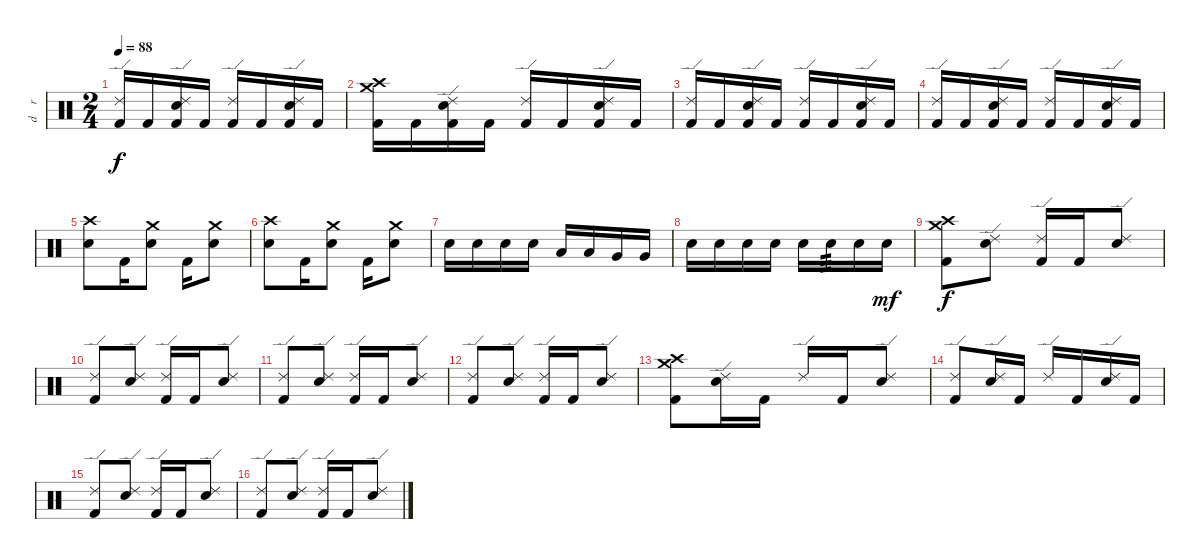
\track ("d    r     u    m    s" "d    r    ") {instrument percussion}
\staff {score}
\articulation defaults
\ts (2 4)
\tempo 88
\clef neutral
\ks c
("Ride (edge) 2" "Kick (hit) 2").16{dy f} "Kick (hit) 2".16 ("Ride (edge) 2" "Electric Snare (hit)" "Kick (hit) 2").16 "Kick (hit) 2".16 ("Ride (edge) 2" "Kick (hit) 2").16 "Kick (hit) 2".16 ("Ride (edge) 2" "Electric Snare (hit)" "Kick (hit) 2").16 "Kick (hit) 2".16 |
("Crash high (hit)" "Crash medium (hit)" "Kick (hit) 2").16 "Kick (hit) 2".16 ("Ride (edge) 2" "Electric Snare (hit)" "Kick (hit) 2").16 "Kick (hit) 2".16 ("Ride (edge) 2" "Kick (hit) 2").16 "Kick (hit) 2".16 ("Ride (edge) 2" "Electric Snare (hit)" "Kick (hit) 2").16 "Kick (hit) 2".16 |
("Ride (edge) 2" "Kick (hit) 2").16 "Kick (hit) 2".16 ("Ride (edge) 2" "Electric Snare (hit)" "Kick (hit) 2").16 "Kick (hit) 2".16 ("Ride (edge) 2" "Kick (hit) 2").16 "Kick (hit) 2".16 ("Ride (edge) 2" "Electric Snare (hit)" "Kick (hit) 2").16 "Kick (hit) 2".16 |
("Ride (edge) 2" "Kick (hit) 2").16 "Kick (hit) 2".16 ("Ride (edge) 2" "Electric Snare (hit)" "Kick (hit) 2").16 "Kick (hit) 2".16 ("Ride (edge) 2" "Kick (hit) 2").16 "Kick (hit) 2".16 ("Ride (edge) 2" "Electric Snare (hit)" "Kick (hit) 2").16 "Kick (hit) 2".16 |
("Crash high (hit)" "Electric Snare (hit)").8 "Kick (hit) 2".16 ("Crash medium (hit)" "Electric Snare (hit)").8 "Kick (hit) 2".16 ("Crash medium (hit)" "Electric Snare (hit)").8 |
("Crash high (hit)" "Electric Snare (hit)").8 "Kick (hit) 2".16 ("Crash medium (hit)" "Electric Snare (hit)").8 "Kick (hit) 2".16 ("Crash medium (hit)" "Electric Snare (hit)").8 |
"Electric Snare (hit)".16 "Electric Snare (hit)".16 "Electric Snare (hit)".16 "Electric Snare (hit)".16 "Low Tom (hit)".16 "Low Tom (hit)".16 "Very Low Tom (hit)".16 "Very Low Tom (hit)".16 |
"Electric Snare (hit)".16 "Electric Snare (hit)".16 "Electric Snare (hit)".16 "Electric Snare (hit)".16 "Electric Snare (hit)".16 "Electric Snare (hit)".16{tp 3} "Electric Snare (hit)".16 "Electric Snare (hit)".16{dy mf} |
("Crash high (hit)" "Crash medium (hit)" "Kick (hit) 2").8{dy f} ("Ride (edge) 2" "Electric Snare (hit)").8 ("Ride (edge) 2" "Kick (hit) 2").16 "Kick (hit) 2".16 ("Ride (edge) 2" "Electric Snare (hit)").8 |
("Ride (edge) 2" "Kick (hit) 2").8 ("Ride (edge) 2" "Electric Snare (hit)").8 ("Ride (edge) 2" "Kick (hit) 2").16 "Kick (hit) 2".16 ("Ride (edge) 2" "Electric Snare (hit)").8 |
("Ride (edge) 2" "Kick (hit) 2").8 ("Ride (edge) 2" "Electric Snare (hit)").8 ("Ride (edge) 2" "Kick (hit) 2").16 "Kick (hit) 2".16 ("Ride (edge) 2" "Electric Snare (hit)").8 |
("Ride (edge) 2" "Kick (hit) 2").8 ("Ride (edge) 2" "Electric Snare (hit)").8 ("Ride (edge) 2" "Kick (hit) 2").16 "Kick (hit) 2".16 ("Ride (edge) 2" "Electric Snare (hit)").8 |
("Crash high (hit)" "Crash medium (hit)" "Kick (hit) 2").8 ("Ride (edge) 2" "Electric Snare (hit)").16 "Kick (hit) 2".16 "Ride (edge) 2".16 "Kick (hit) 2".16 ("Ride (edge) 2" "Electric Snare (hit)").8 |
("Ride (edge) 2" "Kick (hit) 2").8 ("Ride (edge) 2" "Electric Snare (hit)").16 "Kick (hit) 2".16 "Ride (edge) 2".16 "Kick (hit) 2".16 ("Ride (edge) 2" "Electric Snare (hit)").16 "Kick (hit) 2".16 |
("Ride (edge) 2" "Kick (hit) 2").8 ("Ride (edge) 2" "Electric Snare (hit)").8 ("Ride (edge) 2" "Kick (hit) 2").16 "Kick (hit) 2".16 ("Ride (edge) 2" "Electric Snare (hit)").8 |
("Ride (edge) 2" "Kick (hit) 2").8 ("Ride (edge) 2" "Electric Snare (hit)").8 ("Ride (edge) 2" "Kick (hit) 2").16 "Kick (hit) 2".16 ("Ride (edge) 2" "Electric Snare (hit)").8
